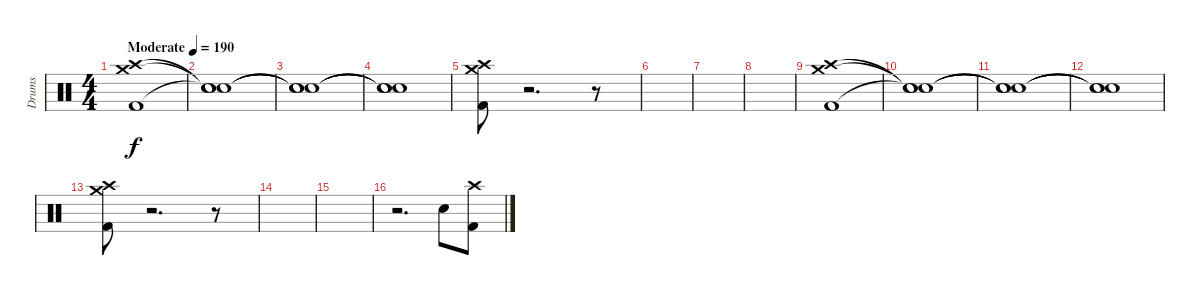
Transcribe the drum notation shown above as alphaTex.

\track ("Drums" "Drums") {instrument percussion}
\staff {score}
\articulation defaults
\ts (4 4)
\tempo (190 "Moderate")
\clef neutral
\ks c
("Crash high (hit)" "Crash medium (hit)" "Kick (hit) 2").1{dy f} |
("Snare (hit)"{t} "Snare (hit)"{t} "Snare (hit)"{t}).1 |
("Snare (hit)"{t} "Snare (hit)"{t} "Snare (hit)"{t}).1 |
("Snare (hit)"{t} "Snare (hit)"{t} "Snare (hit)"{t}).1 |
("Crash high (hit)" "Crash medium (hit)" "Kick (hit) 2").8 r.2{d volume 0} r.8 |
|
|
|
("Crash high (hit)" "Crash medium (hit)" "Kick (hit) 2").1{volume 16} |
("Snare (hit)"{t} "Snare (hit)"{t} "Snare (hit)"{t}).1 |
("Snare (hit)"{t} "Snare (hit)"{t} "Snare (hit)"{t}).1 |
("Snare (hit)"{t} "Snare (hit)"{t} "Snare (hit)"{t}).1 |
("Crash high (hit)" "Crash medium (hit)" "Kick (hit) 2").8 r.2{d volume 0} r.8 |
|
|
r.2{d} "Electric Snare (hit)".8{volume 16} ("Crash high (hit)" "Kick (hit) 2").8
